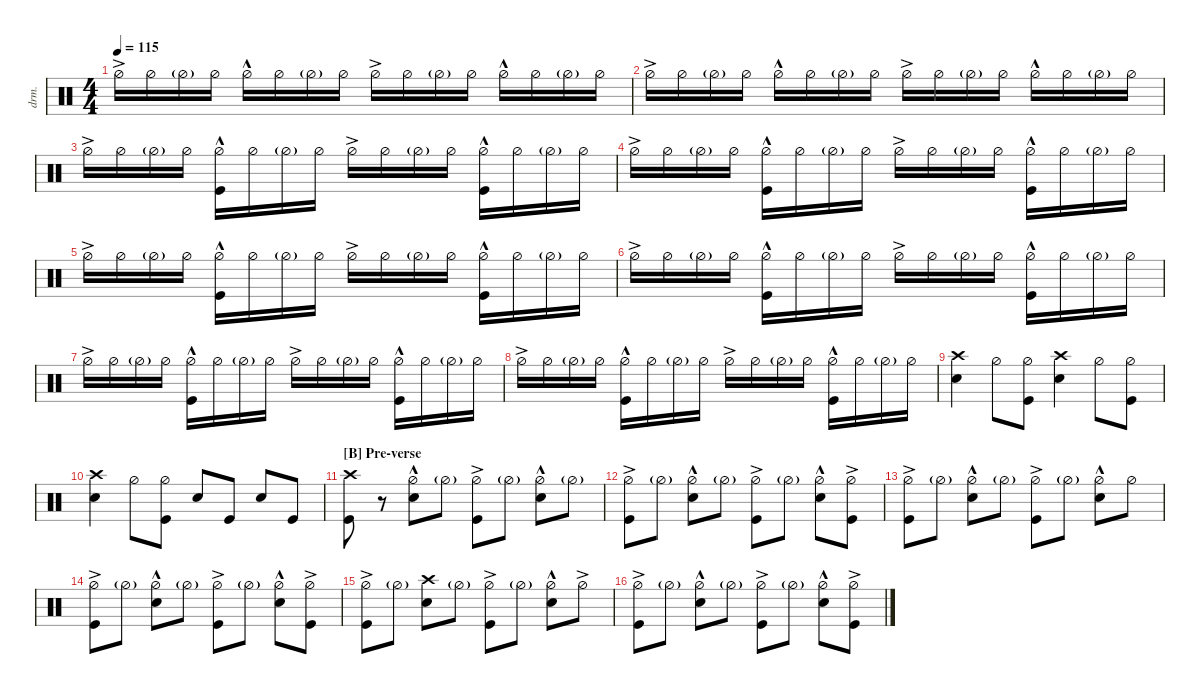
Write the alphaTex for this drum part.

\defaultSystemsLayout 4
\hideDynamics
\bracketExtendMode nobrackets
\otherSystemsTrackNameOrientation horizontal
\track ("Drums" "drm.") {multiBarRest instrument percussion}
\staff
\articulation defaults
\ts (4 4)
\tempo 115
\clef neutral
\ks c "Hi-Hat (half)"{ac}.16{dy mf} "Hi-Hat (half)".16 "Hi-Hat (half)"{g}.16 "Hi-Hat (half)".16 "Hi-Hat (half)"{hac}.16 "Hi-Hat (half)".16 "Hi-Hat (half)"{g}.16 "Hi-Hat (half)".16 "Hi-Hat (half)"{ac}.16 "Hi-Hat (half)".16 "Hi-Hat (half)"{g}.16 "Hi-Hat (half)".16 "Hi-Hat (half)"{hac}.16 "Hi-Hat (half)".16 "Hi-Hat (half)"{g}.16 "Hi-Hat (half)".16
|
"Hi-Hat (half)"{ac}.16 "Hi-Hat (half)".16 "Hi-Hat (half)"{g}.16 "Hi-Hat (half)".16 "Hi-Hat (half)"{hac}.16 "Hi-Hat (half)".16 "Hi-Hat (half)"{g}.16 "Hi-Hat (half)".16 "Hi-Hat (half)"{ac}.16 "Hi-Hat (half)".16 "Hi-Hat (half)"{g}.16 "Hi-Hat (half)".16 "Hi-Hat (half)"{hac}.16 "Hi-Hat (half)".16 "Hi-Hat (half)"{g}.16 "Hi-Hat (half)".16 |
"Hi-Hat (half)"{ac}.16 "Hi-Hat (half)".16 "Hi-Hat (half)"{g}.16 "Hi-Hat (half)".16 ("Hi-Hat (half)"{hac} "Kick (hit)").16 "Hi-Hat (half)".16 "Hi-Hat (half)"{g}.16 "Hi-Hat (half)".16 "Hi-Hat (half)"{ac}.16 "Hi-Hat (half)".16 "Hi-Hat (half)"{g}.16 "Hi-Hat (half)".16 ("Hi-Hat (half)"{hac} "Kick (hit)").16 "Hi-Hat (half)".16 "Hi-Hat (half)"{g}.16 "Hi-Hat (half)".16 |
"Hi-Hat (half)"{ac}.16 "Hi-Hat (half)".16 "Hi-Hat (half)"{g}.16 "Hi-Hat (half)".16 ("Hi-Hat (half)"{hac} "Kick (hit)").16 "Hi-Hat (half)".16 "Hi-Hat (half)"{g}.16 "Hi-Hat (half)".16 "Hi-Hat (half)"{ac}.16 "Hi-Hat (half)".16 "Hi-Hat (half)"{g}.16 "Hi-Hat (half)".16 ("Hi-Hat (half)"{hac} "Kick (hit)").16 "Hi-Hat (half)".16 "Hi-Hat (half)"{g}.16 "Hi-Hat (half)".16 |
"Hi-Hat (half)"{ac}.16 "Hi-Hat (half)".16 "Hi-Hat (half)"{g}.16 "Hi-Hat (half)".16 ("Hi-Hat (half)"{hac} "Kick (hit)").16 "Hi-Hat (half)".16 "Hi-Hat (half)"{g}.16 "Hi-Hat (half)".16 "Hi-Hat (half)"{ac}.16 "Hi-Hat (half)".16 "Hi-Hat (half)"{g}.16 "Hi-Hat (half)".16 ("Hi-Hat (half)"{hac} "Kick (hit)").16 "Hi-Hat (half)".16 "Hi-Hat (half)"{g}.16 "Hi-Hat (half)".16 |
"Hi-Hat (half)"{ac}.16 "Hi-Hat (half)".16 "Hi-Hat (half)"{g}.16 "Hi-Hat (half)".16 ("Hi-Hat (half)"{hac} "Kick (hit)").16 "Hi-Hat (half)".16 "Hi-Hat (half)"{g}.16 "Hi-Hat (half)".16 "Hi-Hat (half)"{ac}.16 "Hi-Hat (half)".16 "Hi-Hat (half)"{g}.16 "Hi-Hat (half)".16 ("Hi-Hat (half)"{hac} "Kick (hit)").16 "Hi-Hat (half)".16 "Hi-Hat (half)"{g}.16 "Hi-Hat (half)".16 |
"Hi-Hat (half)"{ac}.16 "Hi-Hat (half)".16 "Hi-Hat (half)"{g}.16 "Hi-Hat (half)".16 ("Hi-Hat (half)"{hac} "Kick (hit)").16 "Hi-Hat (half)".16 "Hi-Hat (half)"{g}.16 "Hi-Hat (half)".16 "Hi-Hat (half)"{ac}.16 "Hi-Hat (half)".16 "Hi-Hat (half)"{g}.16 "Hi-Hat (half)".16 ("Hi-Hat (half)"{hac} "Kick (hit)").16 "Hi-Hat (half)".16 "Hi-Hat (half)"{g}.16 "Hi-Hat (half)".16 |
"Hi-Hat (half)"{ac}.16 "Hi-Hat (half)".16 "Hi-Hat (half)"{g}.16 "Hi-Hat (half)".16 ("Hi-Hat (half)"{hac} "Kick (hit)").16 "Hi-Hat (half)".16 "Hi-Hat (half)"{g}.16 "Hi-Hat (half)".16 "Hi-Hat (half)"{ac}.16 "Hi-Hat (half)".16 "Hi-Hat (half)"{g}.16 "Hi-Hat (half)".16 ("Hi-Hat (half)"{hac} "Kick (hit)").16 "Hi-Hat (half)".16 "Hi-Hat (half)"{g}.16 "Hi-Hat (half)".16 |
("Snare (hit) 2" "Crash high (hit)").4{dy f} "Hi-Hat (half)".8 ("Hi-Hat (half)" "Kick (hit)").8 ("Snare (hit) 2" "Crash high (hit)").4 "Hi-Hat (half)".8 ("Hi-Hat (half)" "Kick (hit)").8 |
("Snare (hit) 2" "Crash high (hit)").4 "Hi-Hat (half)".8 ("Hi-Hat (half)" "Kick (hit)").8 "Snare (hit) 2".8 "Kick (hit)".8 "Snare (hit) 2".8 "Kick (hit)".8 |
\section ("B" "Pre-verse")
("Kick (hit)" "Crash high (hit)").8 r.8 ("Hi-Hat (half)"{hac} "Snare (hit) 2").8 "Hi-Hat (half)"{g}.8 ("Kick (hit)" "Hi-Hat (half)"{ac}).8 "Hi-Hat (half)"{g}.8 ("Hi-Hat (half)"{hac} "Snare (hit) 2").8 "Hi-Hat (half)"{g}.8 |
("Kick (hit)" "Hi-Hat (half)"{ac}).8 "Hi-Hat (half)"{g}.8 ("Hi-Hat (half)"{hac} "Snare (hit) 2").8 "Hi-Hat (half)"{g}.8 ("Kick (hit)" "Hi-Hat (half)"{ac}).8 "Hi-Hat (half)"{g}.8 ("Hi-Hat (half)"{hac} "Snare (hit) 2").8 ("Hi-Hat (half)"{ac} "Kick (hit)").8 |
("Kick (hit)" "Hi-Hat (half)"{ac}).8 "Hi-Hat (half)"{g}.8 ("Hi-Hat (half)"{hac} "Snare (hit) 2").8 "Hi-Hat (half)"{g}.8 ("Kick (hit)" "Hi-Hat (half)"{ac}).8 "Hi-Hat (half)"{g}.8 ("Hi-Hat (half)"{hac} "Snare (hit) 2").8 "Hi-Hat (half)".8 |
("Kick (hit)" "Hi-Hat (half)"{ac}).8 "Hi-Hat (half)"{g}.8 ("Hi-Hat (half)"{hac} "Snare (hit) 2").8 "Hi-Hat (half)"{g}.8 ("Kick (hit)" "Hi-Hat (half)"{ac}).8 "Hi-Hat (half)"{g}.8 ("Hi-Hat (half)"{hac} "Snare (hit) 2").8 ("Hi-Hat (half)"{ac} "Kick (hit)").8 |
("Kick (hit)" "Hi-Hat (half)"{ac}).8 "Hi-Hat (half)"{g}.8 ("Snare (hit) 2" "Crash high (hit)").8 "Hi-Hat (half)"{g}.8 ("Kick (hit)" "Hi-Hat (half)"{ac}).8 "Hi-Hat (half)"{g}.8 ("Hi-Hat (half)"{hac} "Snare (hit) 2").8 "Hi-Hat (half)"{ac}.8 |
("Kick (hit)" "Hi-Hat (half)"{ac}).8 "Hi-Hat (half)"{g}.8 ("Hi-Hat (half)"{hac} "Snare (hit) 2").8 "Hi-Hat (half)"{g}.8 ("Kick (hit)" "Hi-Hat (half)"{ac}).8 "Hi-Hat (half)"{g}.8 ("Hi-Hat (half)"{hac} "Snare (hit) 2").8 ("Hi-Hat (half)"{ac} "Kick (hit)").8
